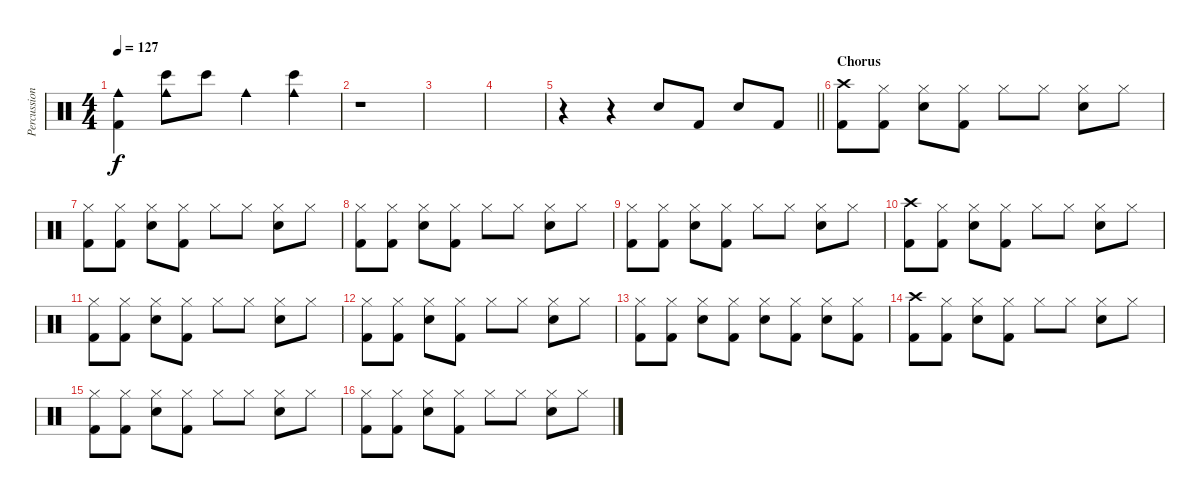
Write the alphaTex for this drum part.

\track ("Percussion" "Percussion") {instrument percussion}
\staff {score}
\articulation defaults
\ts (4 4)
\tempo 127
\clef neutral
\ks c
("Cowbell medium (hit)" "Kick (hit) 2").4{dy f} ("Cowbell medium (hit)" "Bongo High (hit)").8 "Bongo High (hit)".8 "Cowbell medium (hit)".4 ("Cowbell medium (hit)" "Bongo High (hit)").4 |
r.1 |
|
|
\barLineRight lightlight
r.4 r.4 "Snare (hit) 2".8 "Kick (hit) 2".8 "Snare (hit) 2".8 "Kick (hit) 2".8 |
\section ("" "Chorus")
("Crash high (hit)" "Kick (hit) 2").8 ("Hi-Hat (closed)" "Kick (hit) 2").8 ("Hi-Hat (closed)" "Snare (hit) 2").8 ("Hi-Hat (closed)" "Kick (hit) 2").8 "Hi-Hat (closed)".8 "Hi-Hat (closed)".8 ("Hi-Hat (closed)" "Snare (hit) 2").8 "Hi-Hat (closed)".8 |
("Hi-Hat (closed)" "Kick (hit) 2").8 ("Hi-Hat (closed)" "Kick (hit) 2").8 ("Hi-Hat (closed)" "Snare (hit) 2").8 ("Hi-Hat (closed)" "Kick (hit) 2").8 "Hi-Hat (closed)".8 "Hi-Hat (closed)".8 ("Hi-Hat (closed)" "Snare (hit) 2").8 "Hi-Hat (closed)".8 |
("Hi-Hat (closed)" "Kick (hit) 2").8 ("Hi-Hat (closed)" "Kick (hit) 2").8 ("Hi-Hat (closed)" "Snare (hit) 2").8 ("Hi-Hat (closed)" "Kick (hit) 2").8 "Hi-Hat (closed)".8 "Hi-Hat (closed)".8 ("Hi-Hat (closed)" "Snare (hit) 2").8 "Hi-Hat (closed)".8 |
("Hi-Hat (closed)" "Kick (hit) 2").8 ("Hi-Hat (closed)" "Kick (hit) 2").8 ("Hi-Hat (closed)" "Snare (hit) 2").8 ("Hi-Hat (closed)" "Kick (hit) 2").8 "Hi-Hat (closed)".8 "Hi-Hat (closed)".8 ("Hi-Hat (closed)" "Snare (hit) 2").8 "Hi-Hat (closed)".8 |
("Crash high (hit)" "Kick (hit) 2").8 ("Hi-Hat (closed)" "Kick (hit) 2").8 ("Hi-Hat (closed)" "Snare (hit) 2").8 ("Hi-Hat (closed)" "Kick (hit) 2").8 "Hi-Hat (closed)".8 "Hi-Hat (closed)".8 ("Hi-Hat (closed)" "Snare (hit) 2").8 "Hi-Hat (closed)".8 |
("Hi-Hat (closed)" "Kick (hit) 2").8 ("Hi-Hat (closed)" "Kick (hit) 2").8 ("Hi-Hat (closed)" "Snare (hit) 2").8 ("Hi-Hat (closed)" "Kick (hit) 2").8 "Hi-Hat (closed)".8 "Hi-Hat (closed)".8 ("Hi-Hat (closed)" "Snare (hit) 2").8 "Hi-Hat (closed)".8 |
("Hi-Hat (closed)" "Kick (hit) 2").8 ("Hi-Hat (closed)" "Kick (hit) 2").8 ("Hi-Hat (closed)" "Snare (hit) 2").8 ("Hi-Hat (closed)" "Kick (hit) 2").8 "Hi-Hat (closed)".8 "Hi-Hat (closed)".8 ("Hi-Hat (closed)" "Snare (hit) 2").8 "Hi-Hat (closed)".8 |
("Hi-Hat (closed)" "Kick (hit) 2").8 ("Hi-Hat (closed)" "Kick (hit) 2").8 ("Hi-Hat (closed)" "Snare (hit) 2").8 ("Hi-Hat (closed)" "Kick (hit) 2").8 ("Hi-Hat (closed)" "Snare (hit) 2").8 ("Hi-Hat (closed)" "Kick (hit) 2").8 ("Hi-Hat (closed)" "Snare (hit) 2").8 ("Hi-Hat (closed)" "Kick (hit) 2").8 |
("Crash high (hit)" "Kick (hit) 2").8 ("Hi-Hat (closed)" "Kick (hit) 2").8 ("Hi-Hat (closed)" "Snare (hit) 2").8 ("Hi-Hat (closed)" "Kick (hit) 2").8 "Hi-Hat (closed)".8 "Hi-Hat (closed)".8 ("Hi-Hat (closed)" "Snare (hit) 2").8 "Hi-Hat (closed)".8 |
("Hi-Hat (closed)" "Kick (hit) 2").8 ("Hi-Hat (closed)" "Kick (hit) 2").8 ("Hi-Hat (closed)" "Snare (hit) 2").8 ("Hi-Hat (closed)" "Kick (hit) 2").8 "Hi-Hat (closed)".8 "Hi-Hat (closed)".8 ("Hi-Hat (closed)" "Snare (hit) 2").8 "Hi-Hat (closed)".8 |
("Hi-Hat (closed)" "Kick (hit) 2").8 ("Hi-Hat (closed)" "Kick (hit) 2").8 ("Hi-Hat (closed)" "Snare (hit) 2").8 ("Hi-Hat (closed)" "Kick (hit) 2").8 "Hi-Hat (closed)".8 "Hi-Hat (closed)".8 ("Hi-Hat (closed)" "Snare (hit) 2").8 "Hi-Hat (closed)".8
